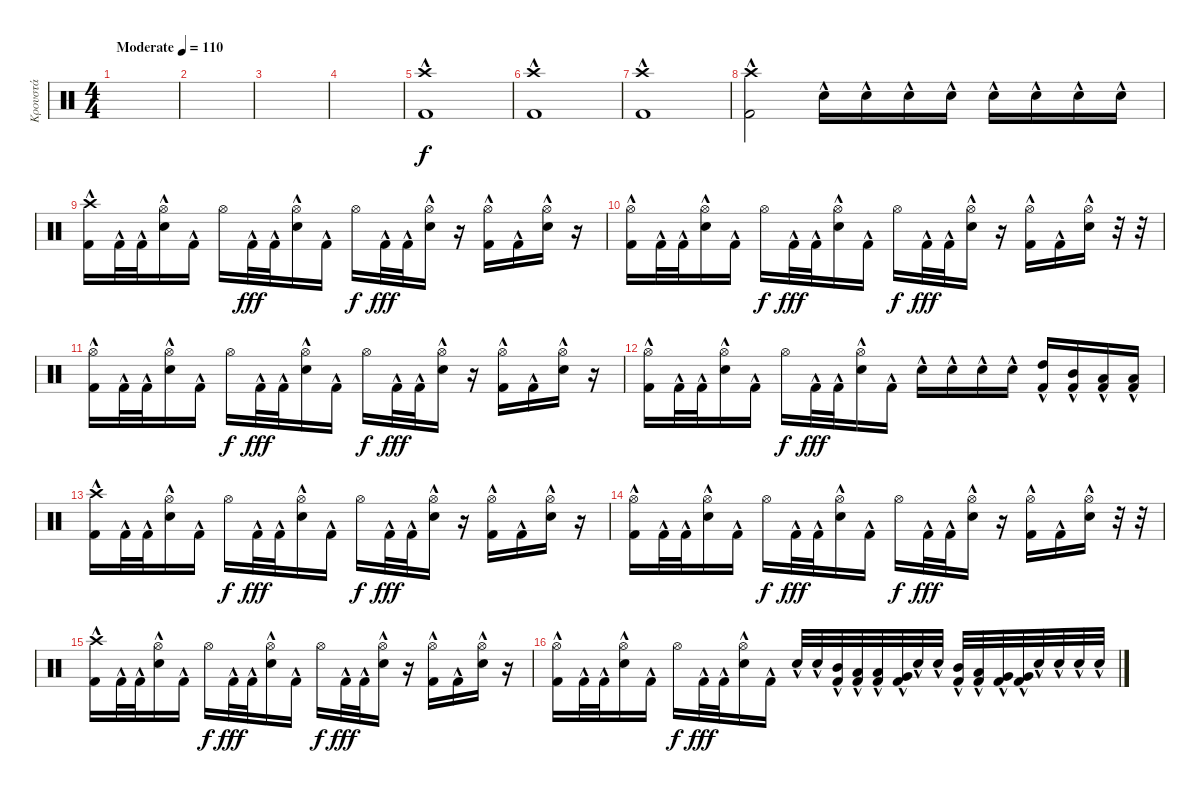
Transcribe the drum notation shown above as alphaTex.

\track ("Κρουστά" "Κρουστά") {instrument percussion}
\staff {score}
\articulation defaults
\ts (4 4)
\tempo (110 "Moderate")
\clef neutral
\ks c
|
|
|
|
("Kick (hit) 2"{hac} "Crash high (hit)").1 |
("Kick (hit) 2"{hac} "Crash high (hit)").1 |
("Kick (hit) 2"{hac} "Crash high (hit)").1 |
("Kick (hit) 2"{hac} "Crash high (hit)").2 "Electric Snare (hit)"{hac}.16 "Electric Snare (hit)"{hac}.16 "Electric Snare (hit)"{hac}.16 "Electric Snare (hit)"{hac}.16 "Electric Snare (hit)"{hac}.16 "Electric Snare (hit)"{hac}.16 "Electric Snare (hit)"{hac}.16 "Electric Snare (hit)"{hac}.16 |
("Crash high (hit)" "Kick (hit) 2"{hac}).16 "Kick (hit) 2"{hac}.32 "Kick (hit) 2"{hac}.32 ("Hi-Hat (open)" "Electric Snare (hit)"{hac}).16 "Kick (hit) 2"{hac}.16 "Hi-Hat (open)".16{dy f} "Kick (hit) 2"{hac}.32{dy fff} "Kick (hit) 2"{hac}.32 ("Hi-Hat (open)" "Electric Snare (hit)"{hac}).16 "Kick (hit) 2"{hac}.16 "Hi-Hat (open)".16{dy f} "Kick (hit) 2"{hac}.32{dy fff} "Kick (hit) 2"{hac}.32 ("Hi-Hat (open)" "Electric Snare (hit)"{hac}).16 r.16 ("Hi-Hat (open)" "Kick (hit) 2"{hac}).16 "Kick (hit) 2"{hac}.16 ("Hi-Hat (open)" "Electric Snare (hit)"{hac}).16 r.16 |
("Hi-Hat (open)" "Kick (hit) 2"{hac}).16 "Kick (hit) 2"{hac}.32 "Kick (hit) 2"{hac}.32 ("Hi-Hat (open)" "Electric Snare (hit)"{hac}).16 "Kick (hit) 2"{hac}.16 "Hi-Hat (open)".16{dy f} "Kick (hit) 2"{hac}.32{dy fff} "Kick (hit) 2"{hac}.32 ("Hi-Hat (open)" "Electric Snare (hit)"{hac}).16 "Kick (hit) 2"{hac}.16 "Hi-Hat (open)".16{dy f} "Kick (hit) 2"{hac}.32{dy fff} "Kick (hit) 2"{hac}.32 ("Hi-Hat (open)" "Electric Snare (hit)"{hac}).16 r.16 ("Hi-Hat (open)" "Kick (hit) 2"{hac}).16 "Kick (hit) 2"{hac}.16 ("Hi-Hat (open)" "Electric Snare (hit)"{hac}).16 r.32 r.32 |
("Hi-Hat (open)" "Kick (hit) 2"{hac}).16 "Kick (hit) 2"{hac}.32 "Kick (hit) 2"{hac}.32 ("Hi-Hat (open)" "Electric Snare (hit)"{hac}).16 "Kick (hit) 2"{hac}.16 "Hi-Hat (open)".16{dy f} "Kick (hit) 2"{hac}.32{dy fff} "Kick (hit) 2"{hac}.32 ("Hi-Hat (open)" "Electric Snare (hit)"{hac}).16 "Kick (hit) 2"{hac}.16 "Hi-Hat (open)".16{dy f} "Kick (hit) 2"{hac}.32{dy fff} "Kick (hit) 2"{hac}.32 ("Hi-Hat (open)" "Electric Snare (hit)"{hac}).16 r.16 ("Hi-Hat (open)" "Kick (hit) 2"{hac}).16 "Kick (hit) 2"{hac}.16 ("Hi-Hat (open)" "Electric Snare (hit)"{hac}).16 r.16 |
("Hi-Hat (open)" "Kick (hit) 2"{hac}).16 "Kick (hit) 2"{hac}.32 "Kick (hit) 2"{hac}.32 ("Hi-Hat (open)" "Electric Snare (hit)"{hac}).16 "Kick (hit) 2"{hac}.16 "Hi-Hat (open)".16{dy f} "Kick (hit) 2"{hac}.32{dy fff} "Kick (hit) 2"{hac}.32 ("Hi-Hat (open)" "Electric Snare (hit)"{hac}).16 "Kick (hit) 2"{hac}.16 "Electric Snare (hit)"{hac}.16 "Electric Snare (hit)"{hac}.16 "Electric Snare (hit)"{hac}.16 "Electric Snare (hit)"{hac}.16 ("High Tom (hit)" "Kick (hit) 2"{hac}).16 ("Mid Tom (hit)" "Kick (hit) 2"{hac}).16 ("Low Tom (hit)" "Kick (hit) 2"{hac}).16 ("Low Tom (hit)" "Kick (hit) 2"{hac}).16 |
("Crash high (hit)" "Kick (hit) 2"{hac}).16 "Kick (hit) 2"{hac}.32 "Kick (hit) 2"{hac}.32 ("Hi-Hat (open)" "Electric Snare (hit)"{hac}).16 "Kick (hit) 2"{hac}.16 "Hi-Hat (open)".16{dy f} "Kick (hit) 2"{hac}.32{dy fff} "Kick (hit) 2"{hac}.32 ("Hi-Hat (open)" "Electric Snare (hit)"{hac}).16 "Kick (hit) 2"{hac}.16 "Hi-Hat (open)".16{dy f} "Kick (hit) 2"{hac}.32{dy fff} "Kick (hit) 2"{hac}.32 ("Hi-Hat (open)" "Electric Snare (hit)"{hac}).16 r.16 ("Hi-Hat (open)" "Kick (hit) 2"{hac}).16 "Kick (hit) 2"{hac}.16 ("Hi-Hat (open)" "Electric Snare (hit)"{hac}).16 r.16 |
("Hi-Hat (open)" "Kick (hit) 2"{hac}).16 "Kick (hit) 2"{hac}.32 "Kick (hit) 2"{hac}.32 ("Hi-Hat (open)" "Electric Snare (hit)"{hac}).16 "Kick (hit) 2"{hac}.16 "Hi-Hat (open)".16{dy f} "Kick (hit) 2"{hac}.32{dy fff} "Kick (hit) 2"{hac}.32 ("Hi-Hat (open)" "Electric Snare (hit)"{hac}).16 "Kick (hit) 2"{hac}.16 "Hi-Hat (open)".16{dy f} "Kick (hit) 2"{hac}.32{dy fff} "Kick (hit) 2"{hac}.32 ("Hi-Hat (open)" "Electric Snare (hit)"{hac}).16 r.16 ("Hi-Hat (open)" "Kick (hit) 2"{hac}).16 "Kick (hit) 2"{hac}.16 ("Hi-Hat (open)" "Electric Snare (hit)"{hac}).16 r.32 r.32 |
("Crash high (hit)" "Kick (hit) 2"{hac}).16 "Kick (hit) 2"{hac}.32 "Kick (hit) 2"{hac}.32 ("Hi-Hat (open)" "Electric Snare (hit)"{hac}).16 "Kick (hit) 2"{hac}.16 "Hi-Hat (open)".16{dy f} "Kick (hit) 2"{hac}.32{dy fff} "Kick (hit) 2"{hac}.32 ("Hi-Hat (open)" "Electric Snare (hit)"{hac}).16 "Kick (hit) 2"{hac}.16 "Hi-Hat (open)".16{dy f} "Kick (hit) 2"{hac}.32{dy fff} "Kick (hit) 2"{hac}.32 ("Hi-Hat (open)" "Electric Snare (hit)"{hac}).16 r.16 ("Hi-Hat (open)" "Kick (hit) 2"{hac}).16 "Kick (hit) 2"{hac}.16 ("Hi-Hat (open)" "Electric Snare (hit)"{hac}).16 r.16 |
("Hi-Hat (open)" "Kick (hit) 2"{hac}).16 "Kick (hit) 2"{hac}.32 "Kick (hit) 2"{hac}.32 ("Hi-Hat (open)" "Electric Snare (hit)"{hac}).16 "Kick (hit) 2"{hac}.16 "Hi-Hat (open)".16{dy f} "Kick (hit) 2"{hac}.32{dy fff} "Kick (hit) 2"{hac}.32 ("Hi-Hat (open)" "Electric Snare (hit)"{hac}).16 "Kick (hit) 2"{hac}.16 "Electric Snare (hit)"{hac}.32 "Electric Snare (hit)"{hac}.32 ("Mid Tom (hit)" "Kick (hit) 2"{hac}).32 ("Low Tom (hit)" "Kick (hit) 2"{hac}).32 ("Low Tom (hit)" "Kick (hit) 2"{hac}).32 ("Very Low Tom (hit)" "Kick (hit) 2"{hac}).32 "Electric Snare (hit)"{hac}.32 "Electric Snare (hit)"{hac}.32 ("Mid Tom (hit)" "Kick (hit) 2"{hac}).32 ("Low Tom (hit)" "Kick (hit) 2"{hac}).32 ("Very Low Tom (hit)" "Kick (hit) 2"{hac}).32 ("Very Low Tom (hit)" "Kick (hit) 2"{hac}).32 "Electric Snare (hit)"{hac}.32 "Electric Snare (hit)"{hac}.32 "Electric Snare (hit)"{hac}.32 "Electric Snare (hit)"{hac}.32
